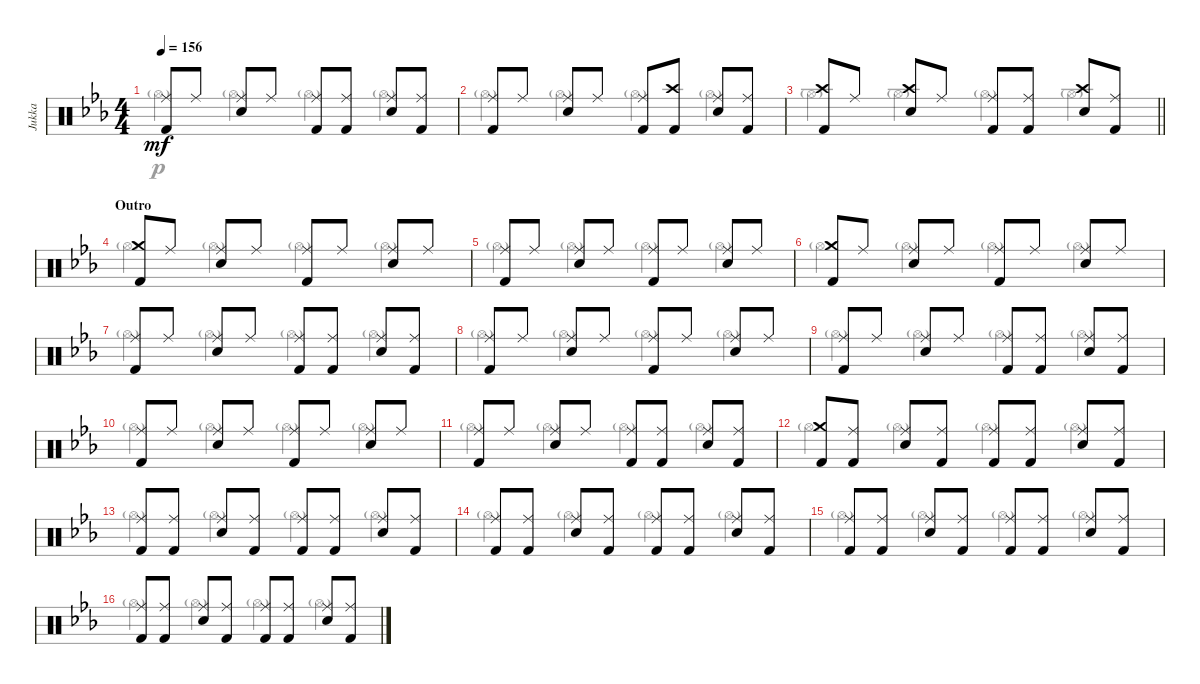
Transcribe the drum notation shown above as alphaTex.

\track ("Jukka" "Jukka") {instrument percussion}
\staff {score}
\articulation defaults
\voice
\ts (4 4)
\tempo 156
\clef neutral
\ks cminor
("Ride (middle)" "Kick (hit) 2").8{dy mf} "Ride (middle)".8 ("Ride (middle)" "Electric Snare (hit)").8 "Ride (middle)".8 ("Ride (middle)" "Kick (hit) 2").8 ("Ride (middle)" "Kick (hit) 2").8 ("Ride (middle)" "Electric Snare (hit)").8 ("Ride (middle)" "Kick (hit) 2").8 |
("Ride (middle)" "Kick (hit) 2").8 "Ride (middle)".8 ("Ride (middle)" "Electric Snare (hit)").8 "Ride (middle)".8 ("Ride (middle)" "Kick (hit) 2").8 ("Crash high (hit)" "Kick (hit) 2").8 ("Ride (middle)" "Electric Snare (hit)").8 ("Ride (middle)" "Kick (hit) 2").8 |
\barLineRight lightlight
("Crash high (hit)" "Kick (hit) 2").8 "Ride (middle)".8 ("Crash high (hit)" "Electric Snare (hit)").8 "Ride (middle)".8 ("Ride (middle)" "Kick (hit) 2").8 ("Ride (middle)" "Kick (hit) 2").8 ("Crash high (hit)" "Electric Snare (hit)").8 ("Ride (middle)" "Kick (hit) 2").8 |
\section ("" "Outro")
("Crash medium (hit)" "Kick (hit) 2").8 "Ride (middle)".8 ("Ride (middle)" "Electric Snare (hit)").8 "Ride (middle)".8 ("Ride (middle)" "Kick (hit) 2").8 "Ride (middle)".8 ("Ride (middle)" "Electric Snare (hit)").8 "Ride (middle)".8 |
("Ride (middle)" "Kick (hit) 2").8 "Ride (middle)".8 ("Ride (middle)" "Electric Snare (hit)").8 "Ride (middle)".8 ("Ride (middle)" "Kick (hit) 2").8 "Ride (middle)".8 ("Ride (middle)" "Electric Snare (hit)").8 "Ride (middle)".8 |
("Crash medium (hit)" "Kick (hit) 2").8 "Ride (middle)".8 ("Ride (middle)" "Electric Snare (hit)").8 "Ride (middle)".8 ("Ride (middle)" "Kick (hit) 2").8 "Ride (middle)".8 ("Ride (middle)" "Electric Snare (hit)").8 "Ride (middle)".8 |
("Ride (middle)" "Kick (hit) 2").8 "Ride (middle)".8 ("Ride (middle)" "Electric Snare (hit)").8 "Ride (middle)".8 ("Ride (middle)" "Kick (hit) 2").8 ("Ride (middle)" "Kick (hit) 2").8 ("Ride (middle)" "Electric Snare (hit)").8 ("Ride (middle)" "Kick (hit) 2").8 |
("Ride (middle)" "Kick (hit) 2").8 "Ride (middle)".8 ("Ride (middle)" "Electric Snare (hit)").8 "Ride (middle)".8 ("Ride (middle)" "Kick (hit) 2").8 "Ride (middle)".8 ("Ride (middle)" "Electric Snare (hit)").8 "Ride (middle)".8 |
("Ride (middle)" "Kick (hit) 2").8 "Ride (middle)".8 ("Ride (middle)" "Electric Snare (hit)").8 "Ride (middle)".8 ("Ride (middle)" "Kick (hit) 2").8 ("Ride (middle)" "Kick (hit) 2").8 ("Ride (middle)" "Electric Snare (hit)").8 ("Ride (middle)" "Kick (hit) 2").8 |
("Ride (middle)" "Kick (hit) 2").8 "Ride (middle)".8 ("Ride (middle)" "Electric Snare (hit)").8 "Ride (middle)".8 ("Ride (middle)" "Kick (hit) 2").8 "Ride (middle)".8 ("Ride (middle)" "Electric Snare (hit)").8 "Ride (middle)".8 |
("Ride (middle)" "Kick (hit) 2").8 "Ride (middle)".8 ("Ride (middle)" "Electric Snare (hit)").8 "Ride (middle)".8 ("Ride (middle)" "Kick (hit) 2").8 ("Ride (middle)" "Kick (hit) 2").8 ("Ride (middle)" "Electric Snare (hit)").8 ("Ride (middle)" "Kick (hit) 2").8 |
("Crash medium (hit)" "Kick (hit) 2").8 ("Ride (middle)" "Kick (hit) 2").8 ("Ride (middle)" "Electric Snare (hit)").8 ("Ride (middle)" "Kick (hit) 2").8 ("Ride (middle)" "Kick (hit) 2").8 ("Ride (middle)" "Kick (hit) 2").8 ("Ride (middle)" "Electric Snare (hit)").8 ("Ride (middle)" "Kick (hit) 2").8 |
("Ride (middle)" "Kick (hit) 2").8 ("Ride (middle)" "Kick (hit) 2").8 ("Ride (middle)" "Electric Snare (hit)").8 ("Ride (middle)" "Kick (hit) 2").8 ("Ride (middle)" "Kick (hit) 2").8 ("Ride (middle)" "Kick (hit) 2").8 ("Ride (middle)" "Electric Snare (hit)").8 ("Ride (middle)" "Kick (hit) 2").8 |
("Ride (middle)" "Kick (hit) 2").8 ("Ride (middle)" "Kick (hit) 2").8 ("Ride (middle)" "Electric Snare (hit)").8 ("Ride (middle)" "Kick (hit) 2").8 ("Ride (middle)" "Kick (hit) 2").8 ("Ride (middle)" "Kick (hit) 2").8 ("Ride (middle)" "Electric Snare (hit)").8 ("Ride (middle)" "Kick (hit) 2").8 |
("Ride (middle)" "Kick (hit) 2").8 ("Ride (middle)" "Kick (hit) 2").8 ("Ride (middle)" "Electric Snare (hit)").8 ("Ride (middle)" "Kick (hit) 2").8 ("Ride (middle)" "Kick (hit) 2").8 ("Ride (middle)" "Kick (hit) 2").8 ("Ride (middle)" "Electric Snare (hit)").8 ("Ride (middle)" "Kick (hit) 2").8 |
("Ride (middle)" "Kick (hit) 2").8 ("Ride (middle)" "Kick (hit) 2").8 ("Ride (middle)" "Electric Snare (hit)").8 ("Ride (middle)" "Kick (hit) 2").8 ("Ride (middle)" "Kick (hit) 2").8 ("Ride (middle)" "Kick (hit) 2").8 ("Ride (middle)" "Electric Snare (hit)").8 ("Ride (middle)" "Kick (hit) 2").8
\voice
\clef neutral
\ottava regular
\simile none
\ks cminor "Hi-Hat (open)"{g}.4{dy p} "Hi-Hat (open)"{g}.4 "Hi-Hat (open)"{g}.4 "Hi-Hat (open)"{g}.4
|
"Hi-Hat (open)"{g}.4 "Hi-Hat (open)"{g}.4 "Hi-Hat (open)"{g}.4 "Hi-Hat (open)"{g}.4 |
\barLineRight lightlight "Hi-Hat (open)"{g}.4 "Hi-Hat (open)"{g}.4 "Hi-Hat (open)"{g}.4 "Hi-Hat (open)"{g}.4
|
"Hi-Hat (open)"{g}.4 "Hi-Hat (open)"{g}.4 "Hi-Hat (open)"{g}.4 "Hi-Hat (open)"{g}.4 |
"Hi-Hat (open)"{g}.4 "Hi-Hat (open)"{g}.4 "Hi-Hat (open)"{g}.4 "Hi-Hat (open)"{g}.4 |
"Hi-Hat (open)"{g}.4 "Hi-Hat (open)"{g}.4 "Hi-Hat (open)"{g}.4 "Hi-Hat (open)"{g}.4 |
"Hi-Hat (open)"{g}.4 "Hi-Hat (open)"{g}.4 "Hi-Hat (open)"{g}.4 "Hi-Hat (open)"{g}.4 |
"Hi-Hat (open)"{g}.4 "Hi-Hat (open)"{g}.4 "Hi-Hat (open)"{g}.4 "Hi-Hat (open)"{g}.4 |
"Hi-Hat (open)"{g}.4 "Hi-Hat (open)"{g}.4 "Hi-Hat (open)"{g}.4 "Hi-Hat (open)"{g}.4 |
"Hi-Hat (open)"{g}.4 "Hi-Hat (open)"{g}.4 "Hi-Hat (open)"{g}.4 "Hi-Hat (open)"{g}.4 |
"Hi-Hat (open)"{g}.4 "Hi-Hat (open)"{g}.4 "Hi-Hat (open)"{g}.4 "Hi-Hat (open)"{g}.4 |
"Hi-Hat (open)"{g}.4 "Hi-Hat (open)"{g}.4 "Hi-Hat (open)"{g}.4 "Hi-Hat (open)"{g}.4 |
"Hi-Hat (open)"{g}.4 "Hi-Hat (open)"{g}.4 "Hi-Hat (open)"{g}.4 "Hi-Hat (open)"{g}.4 |
"Hi-Hat (open)"{g}.4 "Hi-Hat (open)"{g}.4 "Hi-Hat (open)"{g}.4 "Hi-Hat (open)"{g}.4 |
"Hi-Hat (open)"{g}.4 "Hi-Hat (open)"{g}.4 "Hi-Hat (open)"{g}.4 "Hi-Hat (open)"{g}.4 |
"Hi-Hat (open)"{g}.4 "Hi-Hat (open)"{g}.4 "Hi-Hat (open)"{g}.4 "Hi-Hat (open)"{g}.4
